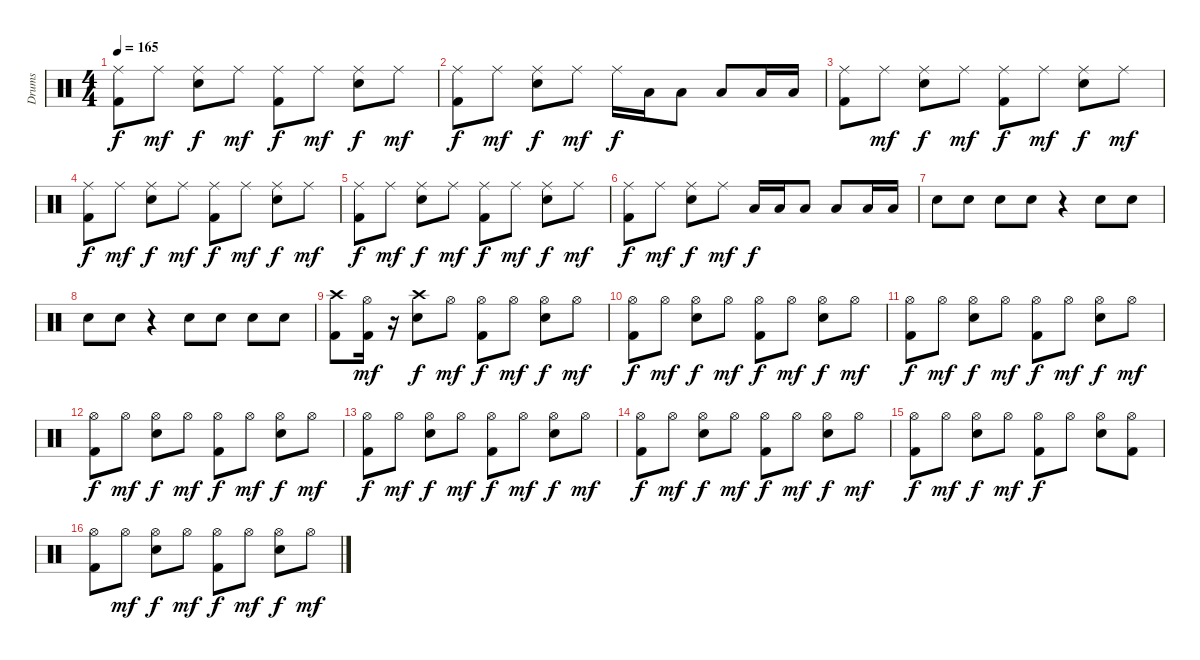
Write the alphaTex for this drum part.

\track ("Drums" "Drums") {instrument percussion}
\staff {score}
\articulation defaults
\ts (4 4)
\tempo 165
\clef neutral
\ks c
("Ride (middle)" "Kick (hit) 2").8{dy f} "Ride (middle)".8{dy mf} ("Ride (middle)" "Electric Snare (hit)").8{dy f} "Ride (middle)".8{dy mf} ("Ride (middle)" "Kick (hit) 2").8{dy f} "Ride (middle)".8{dy mf} ("Ride (middle)" "Electric Snare (hit)").8{dy f} "Ride (middle)".8{dy mf} |
("Ride (middle)" "Kick (hit) 2").8{dy f} "Ride (middle)".8{dy mf} ("Ride (middle)" "Electric Snare (hit)").8{dy f} "Ride (middle)".8{dy mf} "Ride (middle)".16{dy f} "Low Floor Tom (hit)".16 "Low Floor Tom (hit)".8 "Low Floor Tom (hit)".8 "Low Floor Tom (hit)".16 "Low Floor Tom (hit)".16 |
("Ride (middle)" "Kick (hit) 2").8 "Ride (middle)".8{dy mf} ("Ride (middle)" "Electric Snare (hit)").8{dy f} "Ride (middle)".8{dy mf} ("Ride (middle)" "Kick (hit) 2").8{dy f} "Ride (middle)".8{dy mf} ("Ride (middle)" "Electric Snare (hit)").8{dy f} "Ride (middle)".8{dy mf} |
("Ride (middle)" "Kick (hit) 2").8{dy f} "Ride (middle)".8{dy mf} ("Ride (middle)" "Electric Snare (hit)").8{dy f} "Ride (middle)".8{dy mf} ("Ride (middle)" "Kick (hit) 2").8{dy f} "Ride (middle)".8{dy mf} ("Ride (middle)" "Electric Snare (hit)").8{dy f} "Ride (middle)".8{dy mf} |
("Ride (middle)" "Kick (hit) 2").8{dy f} "Ride (middle)".8{dy mf} ("Ride (middle)" "Electric Snare (hit)").8{dy f} "Ride (middle)".8{dy mf} ("Ride (middle)" "Kick (hit) 2").8{dy f} "Ride (middle)".8{dy mf} ("Ride (middle)" "Electric Snare (hit)").8{dy f} "Ride (middle)".8{dy mf} |
("Ride (middle)" "Kick (hit) 2").8{dy f} "Ride (middle)".8{dy mf} ("Ride (middle)" "Electric Snare (hit)").8{dy f} "Ride (middle)".8{dy mf} "Low Floor Tom (hit)".16{dy f} "Low Floor Tom (hit)".16 "Low Floor Tom (hit)".8 "Low Floor Tom (hit)".8 "Low Floor Tom (hit)".16 "Low Floor Tom (hit)".16 |
"Electric Snare (hit)".8 "Electric Snare (hit)".8 "Electric Snare (hit)".8 "Electric Snare (hit)".8 r.4 "Electric Snare (hit)".8 "Electric Snare (hit)".8 |
"Electric Snare (hit)".8 "Electric Snare (hit)".8 r.4 "Electric Snare (hit)".8 "Electric Snare (hit)".8 "Electric Snare (hit)".8 "Electric Snare (hit)".8 |
("Crash high (hit)" "Kick (hit) 2").8 ("Hi-Hat (open)" "Kick (hit) 2").16{dy mf} r.16 ("Crash high (hit)" "Electric Snare (hit)").8{dy f} "Hi-Hat (open)".8{dy mf} ("Hi-Hat (open)" "Kick (hit) 2").8{dy f} "Hi-Hat (open)".8{dy mf} ("Hi-Hat (open)" "Electric Snare (hit)").8{dy f} "Hi-Hat (open)".8{dy mf} |
("Hi-Hat (open)" "Kick (hit) 2").8{dy f} "Hi-Hat (open)".8{dy mf} ("Hi-Hat (open)" "Electric Snare (hit)").8{dy f} "Hi-Hat (open)".8{dy mf} ("Hi-Hat (open)" "Kick (hit) 2").8{dy f} "Hi-Hat (open)".8{dy mf} ("Hi-Hat (open)" "Electric Snare (hit)").8{dy f} "Hi-Hat (open)".8{dy mf} |
("Hi-Hat (open)" "Kick (hit) 2").8{dy f} "Hi-Hat (open)".8{dy mf} ("Hi-Hat (open)" "Electric Snare (hit)").8{dy f} "Hi-Hat (open)".8{dy mf} ("Hi-Hat (open)" "Kick (hit) 2").8{dy f} "Hi-Hat (open)".8{dy mf} ("Hi-Hat (open)" "Electric Snare (hit)").8{dy f} "Hi-Hat (open)".8{dy mf} |
("Hi-Hat (open)" "Kick (hit) 2").8{dy f} "Hi-Hat (open)".8{dy mf} ("Hi-Hat (open)" "Electric Snare (hit)").8{dy f} "Hi-Hat (open)".8{dy mf} ("Hi-Hat (open)" "Kick (hit) 2").8{dy f} "Hi-Hat (open)".8{dy mf} ("Hi-Hat (open)" "Electric Snare (hit)").8{dy f} "Hi-Hat (open)".8{dy mf} |
("Hi-Hat (open)" "Kick (hit) 2").8{dy f} "Hi-Hat (open)".8{dy mf} ("Hi-Hat (open)" "Electric Snare (hit)").8{dy f} "Hi-Hat (open)".8{dy mf} ("Hi-Hat (open)" "Kick (hit) 2").8{dy f} "Hi-Hat (open)".8{dy mf} ("Hi-Hat (open)" "Electric Snare (hit)").8{dy f} "Hi-Hat (open)".8{dy mf} |
("Hi-Hat (open)" "Kick (hit) 2").8{dy f} "Hi-Hat (open)".8{dy mf} ("Hi-Hat (open)" "Electric Snare (hit)").8{dy f} "Hi-Hat (open)".8{dy mf} ("Hi-Hat (open)" "Kick (hit) 2").8{dy f} "Hi-Hat (open)".8{dy mf} ("Hi-Hat (open)" "Electric Snare (hit)").8{dy f} "Hi-Hat (open)".8{dy mf} |
("Hi-Hat (open)" "Kick (hit) 2").8{dy f} "Hi-Hat (open)".8{dy mf} ("Hi-Hat (open)" "Electric Snare (hit)").8{dy f} "Hi-Hat (open)".8{dy mf} ("Hi-Hat (open)" "Kick (hit) 2").8{dy f} "Hi-Hat (open)".8 ("Hi-Hat (open)" "Electric Snare (hit)").8 ("Hi-Hat (open)" "Kick (hit) 2").8 |
("Hi-Hat (open)" "Kick (hit) 2").8 "Hi-Hat (open)".8{dy mf} ("Hi-Hat (open)" "Electric Snare (hit)").8{dy f} "Hi-Hat (open)".8{dy mf} ("Hi-Hat (open)" "Kick (hit) 2").8{dy f} "Hi-Hat (open)".8{dy mf} ("Hi-Hat (open)" "Electric Snare (hit)").8{dy f} "Hi-Hat (open)".8{dy mf}
